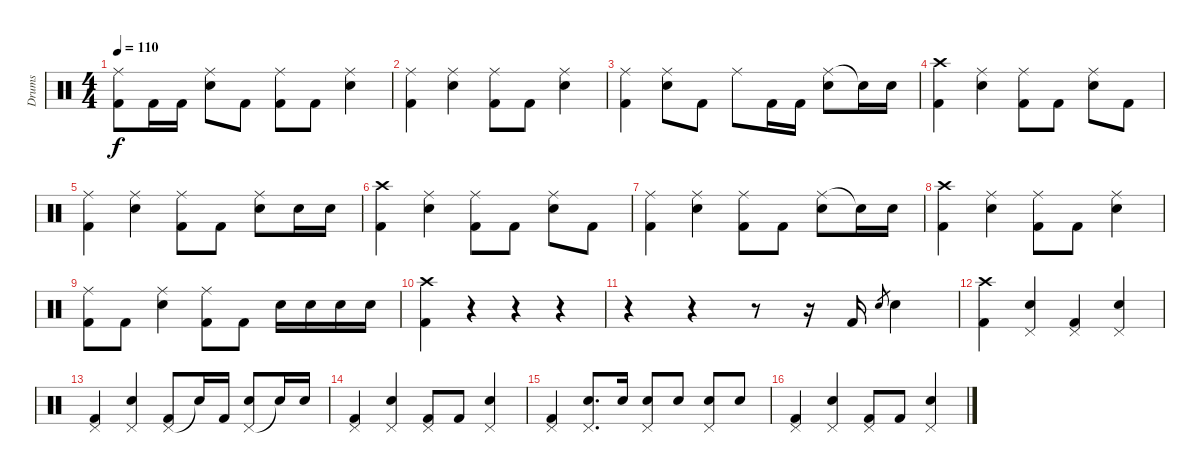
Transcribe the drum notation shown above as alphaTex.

\track ("Drums" "Drums") {instrument percussion}
\staff {score}
\articulation defaults
\ts (4 4)
\tempo 110
\clef neutral
\ks c
("Ride (middle)" "Kick (hit) 2").8{dy f} "Kick (hit) 2".16 "Kick (hit) 2".16 ("Ride (middle)" "Electric Snare (hit)").8 "Kick (hit) 2".8 ("Ride (middle)" "Kick (hit) 2").8 "Kick (hit) 2".8 ("Ride (middle)" "Electric Snare (hit)").4 |
("Ride (middle)" "Kick (hit) 2").4 ("Ride (middle)" "Electric Snare (hit)").4 ("Ride (middle)" "Kick (hit) 2").8 "Kick (hit) 2".8 ("Ride (middle)" "Electric Snare (hit)").4 |
("Ride (middle)" "Kick (hit) 2").4 ("Ride (middle)" "Electric Snare (hit)").8 "Kick (hit) 2".8 "Ride (middle)".8 "Kick (hit) 2".16 "Kick (hit) 2".16 ("Ride (middle)" "Electric Snare (hit)").8 "Snare (hit)"{t}.16 "Electric Snare (hit)".16 |
("Crash high (hit)" "Kick (hit) 2").4 ("Ride (middle)" "Electric Snare (hit)").4 ("Ride (middle)" "Kick (hit) 2").8 "Kick (hit) 2".8 ("Ride (middle)" "Electric Snare (hit)").8 "Kick (hit) 2".8 |
("Ride (middle)" "Kick (hit) 2").4 ("Ride (middle)" "Electric Snare (hit)").4 ("Ride (middle)" "Kick (hit) 2").8 "Kick (hit) 2".8 ("Ride (middle)" "Electric Snare (hit)").8 "Electric Snare (hit)".16 "Electric Snare (hit)".16 |
("Crash high (hit)" "Kick (hit) 2").4 ("Ride (middle)" "Electric Snare (hit)").4 ("Ride (middle)" "Kick (hit) 2").8 "Kick (hit) 2".8 ("Ride (middle)" "Electric Snare (hit)").8 "Kick (hit) 2".8 |
("Ride (middle)" "Kick (hit) 2").4 ("Ride (middle)" "Electric Snare (hit)").4 ("Ride (middle)" "Kick (hit) 2").8 "Kick (hit) 2".8 ("Ride (middle)" "Electric Snare (hit)").8 "Snare (hit)"{t}.16 "Electric Snare (hit)".16 |
("Crash high (hit)" "Kick (hit) 2").4 ("Ride (middle)" "Electric Snare (hit)").4 ("Ride (middle)" "Kick (hit) 2").8 "Kick (hit) 2".8 ("Ride (middle)" "Electric Snare (hit)").4 |
("Ride (middle)" "Kick (hit) 2").8 "Kick (hit) 2".8 ("Ride (middle)" "Electric Snare (hit)").4 ("Ride (middle)" "Kick (hit) 2").8 "Kick (hit) 2".8 "Electric Snare (hit)".16 "Electric Snare (hit)".16 "Electric Snare (hit)".16 "Electric Snare (hit)".16 |
("Crash high (hit)" "Kick (hit) 2").4 r.4 r.4 r.4 |
r.4 r.4 r.8 r.16 "Kick (hit) 2".16 "Electric Snare (hit)".8{gr} "Electric Snare (hit)".4 |
("Crash high (hit)" "Kick (hit) 2").4 ("Pedal Hi-Hat (hit)" "Electric Snare (hit)").4 ("Pedal Hi-Hat (hit)" "Kick (hit) 2").4 ("Pedal Hi-Hat (hit)" "Electric Snare (hit)").4 |
("Pedal Hi-Hat (hit)" "Kick (hit) 2").4 ("Pedal Hi-Hat (hit)" "Electric Snare (hit)").4 ("Pedal Hi-Hat (hit)" "Kick (hit) 2").8 "Snare (hit)"{t}.16 "Kick (hit) 2".16 ("Pedal Hi-Hat (hit)" "Electric Snare (hit)").8 "Snare (hit)"{t}.16 "Electric Snare (hit)".16 |
("Pedal Hi-Hat (hit)" "Kick (hit) 2").4 ("Pedal Hi-Hat (hit)" "Electric Snare (hit)").4 ("Pedal Hi-Hat (hit)" "Kick (hit) 2").8 "Kick (hit) 2".8 ("Pedal Hi-Hat (hit)" "Electric Snare (hit)").4 |
("Pedal Hi-Hat (hit)" "Kick (hit) 2").4 ("Pedal Hi-Hat (hit)" "Electric Snare (hit)").8{d} "Electric Snare (hit)".16 ("Pedal Hi-Hat (hit)" "Electric Snare (hit)").8 "Electric Snare (hit)".8 ("Pedal Hi-Hat (hit)" "Electric Snare (hit)").8 "Electric Snare (hit)".8 |
("Pedal Hi-Hat (hit)" "Kick (hit) 2").4 ("Pedal Hi-Hat (hit)" "Electric Snare (hit)").4 ("Pedal Hi-Hat (hit)" "Kick (hit) 2").8 "Kick (hit) 2".8 ("Pedal Hi-Hat (hit)" "Electric Snare (hit)").4
